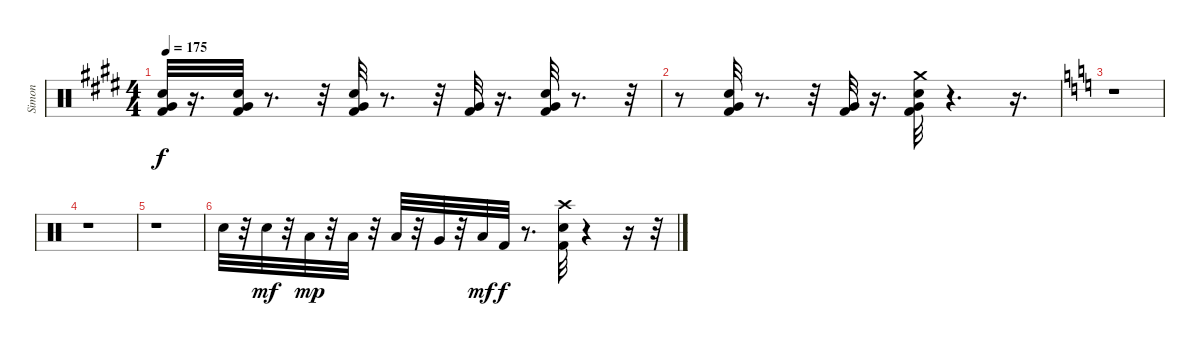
\track ("Simon" "Simon") {instrument percussion}
\staff {score}
\articulation defaults
\ts (4 4)
\tempo 175
\clef neutral
\ks e
("Very Low Tom (hit)" "Kick (hit) 2" "Electric Snare (hit)").32{dy f} r.16{d} ("Very Low Tom (hit)" "Kick (hit) 2" "Electric Snare (hit)").32 r.8{d} r.32 ("Very Low Tom (hit)" "Kick (hit) 2" "Electric Snare (hit)").32 r.8{d} r.32 ("Very Low Tom (hit)" "Kick (hit) 2").32 r.16{d} ("Very Low Tom (hit)" "Kick (hit) 2" "Electric Snare (hit)").32 r.8{d} r.32 |
\ks c#minor
r.8 ("Very Low Tom (hit)" "Kick (hit) 2" "Electric Snare (hit)").32 r.8{d} r.32 ("Very Low Tom (hit)" "Kick (hit) 2").32 r.16{d} ("Very Low Tom (hit)" "Crash medium (hit)" "Kick (hit) 2" "Electric Snare (hit)").32 r.4{d} r.16{d} |
\ks c
r.1 |
r.1 |
r.1 |
"Electric Snare (hit)".32 r.32 "Electric Snare (hit)".32{dy mf} r.32 "Low Tom (hit)".32{dy mp} r.32 "Low Tom (hit)".32 r.32 "Low Tom (hit)".32 r.32 "Very Low Tom (hit)".32 r.32 "Low Floor Tom (hit)".32{dy mf} "Kick (hit) 2".32{dy f} r.8{d} ("Kick (hit) 2" "Crash high (hit)" "Electric Snare (hit)").32 r.4 r.16 r.32
